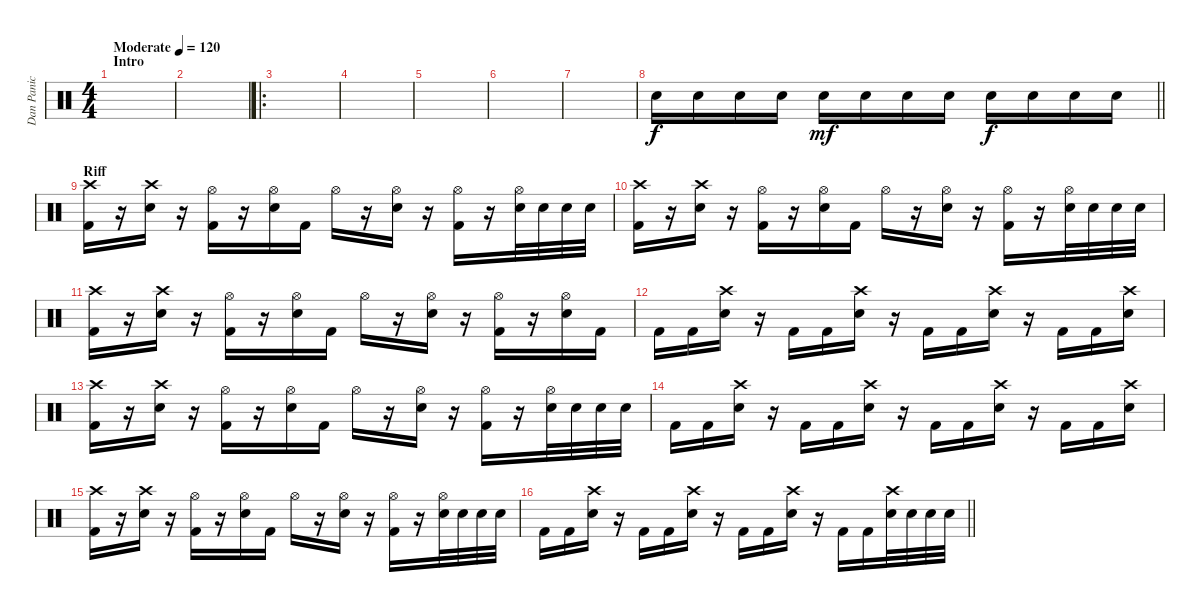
\track ("Dan Panic" "Dan Panic") {instrument percussion}
\staff {score}
\articulation defaults
\ts (4 4)
\section ("" "Intro")
\tempo (120 "Moderate")
\clef neutral
\ks c
|
|
\ro
|
|
|
|
|
\barLineRight lightlight "Electric Snare (hit)".16 "Electric Snare (hit)".16 "Electric Snare (hit)".16 "Electric Snare (hit)".16 "Electric Snare (hit)".16{dy mf} "Electric Snare (hit)".16 "Electric Snare (hit)".16 "Electric Snare (hit)".16 "Electric Snare (hit)".16{dy f} "Electric Snare (hit)".16 "Electric Snare (hit)".16 "Electric Snare (hit)".16
|
\section ("" "Riff")
("Crash high (hit)" "Kick (hit) 2").16 r.16 ("Crash high (hit)" "Electric Snare (hit)").16 r.16 ("Hi-Hat (open)" "Kick (hit) 2").16 r.16 ("Hi-Hat (open)" "Electric Snare (hit)").16 "Kick (hit) 2".16 "Hi-Hat (open)".16 r.16 ("Hi-Hat (open)" "Electric Snare (hit)").16 r.16 ("Hi-Hat (open)" "Kick (hit) 2").16 r.16 ("Hi-Hat (open)" "Electric Snare (hit)").32 "Electric Snare (hit)".32 "Electric Snare (hit)".32 "Electric Snare (hit)".32 |
("Crash high (hit)" "Kick (hit) 2").16 r.16 ("Crash high (hit)" "Electric Snare (hit)").16 r.16 ("Hi-Hat (open)" "Kick (hit) 2").16 r.16 ("Hi-Hat (open)" "Electric Snare (hit)").16 "Kick (hit) 2".16 "Hi-Hat (open)".16 r.16 ("Hi-Hat (open)" "Electric Snare (hit)").16 r.16 ("Hi-Hat (open)" "Kick (hit) 2").16 r.16 ("Hi-Hat (open)" "Electric Snare (hit)").32 "Electric Snare (hit)".32 "Electric Snare (hit)".32 "Electric Snare (hit)".32 |
("Crash high (hit)" "Kick (hit) 2").16 r.16 ("Crash high (hit)" "Electric Snare (hit)").16 r.16 ("Hi-Hat (open)" "Kick (hit) 2").16 r.16 ("Hi-Hat (open)" "Electric Snare (hit)").16 "Kick (hit) 2".16 "Hi-Hat (open)".16 r.16 ("Hi-Hat (open)" "Electric Snare (hit)").16 r.16 ("Hi-Hat (open)" "Kick (hit) 2").16 r.16 ("Hi-Hat (open)" "Electric Snare (hit)").16 "Kick (hit) 2".16 |
"Kick (hit) 2".16 "Kick (hit) 2".16 ("Crash high (hit)" "Electric Snare (hit)").16 r.16 "Kick (hit) 2".16 "Kick (hit) 2".16 ("Crash high (hit)" "Electric Snare (hit)").16 r.16 "Kick (hit) 2".16 "Kick (hit) 2".16 ("Crash high (hit)" "Electric Snare (hit)").16 r.16 "Kick (hit) 2".16 "Kick (hit) 2".16 ("Crash high (hit)" "Electric Snare (hit)").16 |
("Crash high (hit)" "Kick (hit) 2").16 r.16 ("Crash high (hit)" "Electric Snare (hit)").16 r.16 ("Hi-Hat (open)" "Kick (hit) 2").16 r.16 ("Hi-Hat (open)" "Electric Snare (hit)").16 "Kick (hit) 2".16 "Hi-Hat (open)".16 r.16 ("Hi-Hat (open)" "Electric Snare (hit)").16 r.16 ("Hi-Hat (open)" "Kick (hit) 2").16 r.16 ("Hi-Hat (open)" "Electric Snare (hit)").32 "Electric Snare (hit)".32 "Electric Snare (hit)".32 "Electric Snare (hit)".32 |
"Kick (hit) 2".16 "Kick (hit) 2".16 ("Crash high (hit)" "Electric Snare (hit)").16 r.16 "Kick (hit) 2".16 "Kick (hit) 2".16 ("Crash high (hit)" "Electric Snare (hit)").16 r.16 "Kick (hit) 2".16 "Kick (hit) 2".16 ("Crash high (hit)" "Electric Snare (hit)").16 r.16 "Kick (hit) 2".16 "Kick (hit) 2".16 ("Crash high (hit)" "Electric Snare (hit)").16 |
("Crash high (hit)" "Kick (hit) 2").16 r.16 ("Crash high (hit)" "Electric Snare (hit)").16 r.16 ("Hi-Hat (open)" "Kick (hit) 2").16 r.16 ("Hi-Hat (open)" "Electric Snare (hit)").16 "Kick (hit) 2".16 "Hi-Hat (open)".16 r.16 ("Hi-Hat (open)" "Electric Snare (hit)").16 r.16 ("Hi-Hat (open)" "Kick (hit) 2").16 r.16 ("Hi-Hat (open)" "Electric Snare (hit)").32 "Electric Snare (hit)".32 "Electric Snare (hit)".32 "Electric Snare (hit)".32 |
\barLineRight lightlight "Kick (hit) 2".16 "Kick (hit) 2".16
("Crash high (hit)" "Electric Snare (hit)").16 r.16 "Kick (hit) 2".16 "Kick (hit) 2".16 ("Crash high (hit)" "Electric Snare (hit)").16 r.16 "Kick (hit) 2".16 "Kick (hit) 2".16 ("Crash high (hit)" "Electric Snare (hit)").16 r.16 "Kick (hit) 2".16 "Kick (hit) 2".16 ("Crash high (hit)" "Electric Snare (hit)").32 "Electric Snare (hit)".32 "Electric Snare (hit)".32 "Electric Snare (hit)".32
